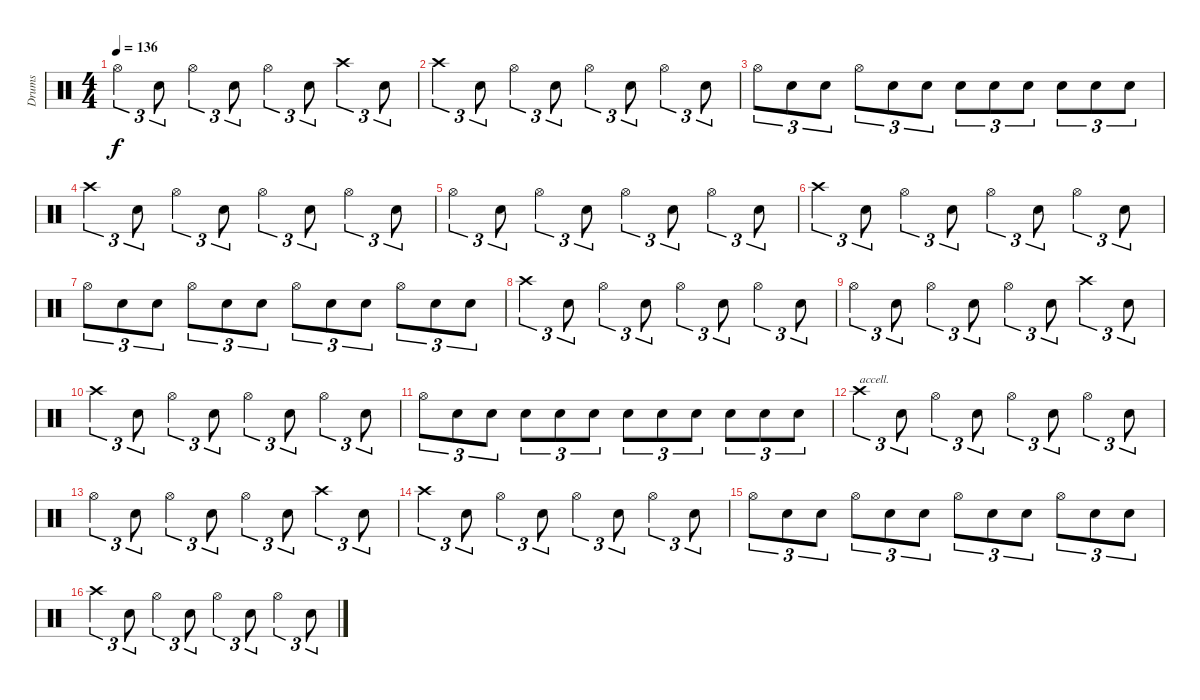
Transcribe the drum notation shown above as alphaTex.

\track ("Drums" "Drums") {instrument percussion}
\staff {score}
\articulation defaults
\ts (4 4)
\tempo 136
\clef neutral
\ks c "Hi-Hat (open)".4{tu (3 2) dy f} "Snare (hit) 2".8{tu (3 2)} "Hi-Hat (open)".4{tu (3 2)} "Snare (hit) 2".8{tu (3 2)} "Hi-Hat (open)".4{tu (3 2)} "Snare (hit) 2".8{tu (3 2)} "Crash high (hit)".4{tu (3 2)} "Snare (hit) 2".8{tu (3 2)}
|
"Crash high (hit)".4{tu (3 2)} "Snare (hit) 2".8{tu (3 2)} "Hi-Hat (open)".4{tu (3 2)} "Snare (hit) 2".8{tu (3 2)} "Hi-Hat (open)".4{tu (3 2)} "Snare (hit) 2".8{tu (3 2)} "Hi-Hat (open)".4{tu (3 2)} "Snare (hit) 2".8{tu (3 2)} |
"Hi-Hat (open)".8{tu (3 2)} "Snare (hit) 2".8{tu (3 2)} "Snare (hit) 2".8{tu (3 2)} "Hi-Hat (open)".8{tu (3 2)} "Snare (hit) 2".8{tu (3 2)} "Snare (hit) 2".8{tu (3 2)} "Snare (hit) 2".8{tu (3 2)} "Snare (hit) 2".8{tu (3 2)} "Snare (hit) 2".8{tu (3 2)} "Snare (hit) 2".8{tu (3 2)} "Snare (hit) 2".8{tu (3 2)} "Snare (hit) 2".8{tu (3 2)} |
"Crash high (hit)".4{tu (3 2)} "Snare (hit) 2".8{tu (3 2)} "Hi-Hat (open)".4{tu (3 2)} "Snare (hit) 2".8{tu (3 2)} "Hi-Hat (open)".4{tu (3 2)} "Snare (hit) 2".8{tu (3 2)} "Hi-Hat (open)".4{tu (3 2)} "Snare (hit) 2".8{tu (3 2)} |
"Hi-Hat (open)".4{tu (3 2)} "Snare (hit) 2".8{tu (3 2)} "Hi-Hat (open)".4{tu (3 2)} "Snare (hit) 2".8{tu (3 2)} "Hi-Hat (open)".4{tu (3 2)} "Snare (hit) 2".8{tu (3 2)} "Hi-Hat (open)".4{tu (3 2)} "Snare (hit) 2".8{tu (3 2)} |
"Crash high (hit)".4{tu (3 2)} "Snare (hit) 2".8{tu (3 2)} "Hi-Hat (open)".4{tu (3 2)} "Snare (hit) 2".8{tu (3 2)} "Hi-Hat (open)".4{tu (3 2)} "Snare (hit) 2".8{tu (3 2)} "Hi-Hat (open)".4{tu (3 2)} "Snare (hit) 2".8{tu (3 2)} |
"Hi-Hat (open)".8{tu (3 2)} "Snare (hit) 2".8{tu (3 2)} "Snare (hit) 2".8{tu (3 2)} "Hi-Hat (open)".8{tu (3 2)} "Snare (hit) 2".8{tu (3 2)} "Snare (hit) 2".8{tu (3 2)} "Hi-Hat (open)".8{tu (3 2)} "Snare (hit) 2".8{tu (3 2)} "Snare (hit) 2".8{tu (3 2)} "Hi-Hat (open)".8{tu (3 2)} "Snare (hit) 2".8{tu (3 2)} "Snare (hit) 2".8{tu (3 2)} |
"Crash high (hit)".4{tu (3 2)} "Snare (hit) 2".8{tu (3 2)} "Hi-Hat (open)".4{tu (3 2)} "Snare (hit) 2".8{tu (3 2)} "Hi-Hat (open)".4{tu (3 2)} "Snare (hit) 2".8{tu (3 2)} "Hi-Hat (open)".4{tu (3 2)} "Snare (hit) 2".8{tu (3 2)} |
"Hi-Hat (open)".4{tu (3 2)} "Snare (hit) 2".8{tu (3 2)} "Hi-Hat (open)".4{tu (3 2)} "Snare (hit) 2".8{tu (3 2)} "Hi-Hat (open)".4{tu (3 2)} "Snare (hit) 2".8{tu (3 2)} "Crash high (hit)".4{tu (3 2)} "Snare (hit) 2".8{tu (3 2)} |
"Crash high (hit)".4{tu (3 2)} "Snare (hit) 2".8{tu (3 2)} "Hi-Hat (open)".4{tu (3 2)} "Snare (hit) 2".8{tu (3 2)} "Hi-Hat (open)".4{tu (3 2)} "Snare (hit) 2".8{tu (3 2)} "Hi-Hat (open)".4{tu (3 2)} "Snare (hit) 2".8{tu (3 2)} |
"Hi-Hat (open)".8{tu (3 2)} "Snare (hit) 2".8{tu (3 2)} "Snare (hit) 2".8{tu (3 2)} "Snare (hit) 2".8{tu (3 2)} "Snare (hit) 2".8{tu (3 2)} "Snare (hit) 2".8{tu (3 2)} "Snare (hit) 2".8{tu (3 2)} "Snare (hit) 2".8{tu (3 2)} "Snare (hit) 2".8{tu (3 2)} "Snare (hit) 2".8{tu (3 2)} "Snare (hit) 2".8{tu (3 2)} "Snare (hit) 2".8{tu (3 2)} |
"Crash high (hit)".4{tu (3 2) txt "accell."} "Snare (hit) 2".8{tu (3 2)} "Hi-Hat (open)".4{tu (3 2)} "Snare (hit) 2".8{tu (3 2)} "Hi-Hat (open)".4{tu (3 2)} "Snare (hit) 2".8{tu (3 2)} "Hi-Hat (open)".4{tu (3 2)} "Snare (hit) 2".8{tu (3 2)} |
"Hi-Hat (open)".4{tu (3 2)} "Snare (hit) 2".8{tu (3 2)} "Hi-Hat (open)".4{tu (3 2)} "Snare (hit) 2".8{tu (3 2)} "Hi-Hat (open)".4{tu (3 2)} "Snare (hit) 2".8{tu (3 2)} "Crash high (hit)".4{tu (3 2)} "Snare (hit) 2".8{tu (3 2)} |
"Crash high (hit)".4{tu (3 2)} "Snare (hit) 2".8{tu (3 2)} "Hi-Hat (open)".4{tu (3 2)} "Snare (hit) 2".8{tu (3 2)} "Hi-Hat (open)".4{tu (3 2)} "Snare (hit) 2".8{tu (3 2)} "Hi-Hat (open)".4{tu (3 2)} "Snare (hit) 2".8{tu (3 2)} |
"Hi-Hat (open)".8{tu (3 2)} "Snare (hit) 2".8{tu (3 2)} "Snare (hit) 2".8{tu (3 2)} "Hi-Hat (open)".8{tu (3 2)} "Snare (hit) 2".8{tu (3 2)} "Snare (hit) 2".8{tu (3 2)} "Hi-Hat (open)".8{tu (3 2)} "Snare (hit) 2".8{tu (3 2)} "Snare (hit) 2".8{tu (3 2)} "Hi-Hat (open)".8{tu (3 2)} "Snare (hit) 2".8{tu (3 2)} "Snare (hit) 2".8{tu (3 2)} |
"Crash high (hit)".4{tu (3 2)} "Snare (hit) 2".8{tu (3 2)} "Hi-Hat (open)".4{tu (3 2)} "Snare (hit) 2".8{tu (3 2)} "Hi-Hat (open)".4{tu (3 2)} "Snare (hit) 2".8{tu (3 2)} "Hi-Hat (open)".4{tu (3 2)} "Snare (hit) 2".8{tu (3 2)}
